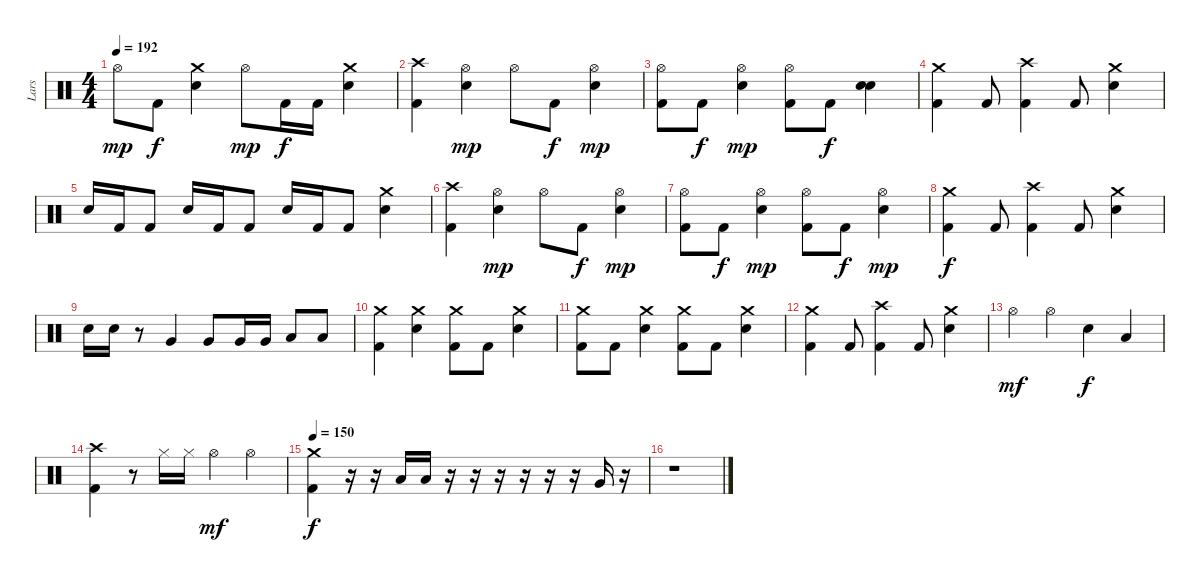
\track ("Lars" "Lars") {instrument percussion}
\staff {score}
\articulation defaults
\ts (4 4)
\tempo 192
\clef neutral
\ks c "Hi-Hat (open)".8{dy mp} "Kick (hit) 2".8{dy f}
("Crash medium (hit)" "Snare (hit) 2").4 "Hi-Hat (open)".8{dy mp} "Kick (hit) 2".16{dy f} "Kick (hit) 2".16 ("Crash medium (hit)" "Snare (hit) 2").4 |
("Crash high (hit)" "Kick (hit) 2").4 ("Hi-Hat (open)" "Snare (hit) 2").4{dy mp} "Hi-Hat (open)".8 "Kick (hit) 2".8{dy f} ("Hi-Hat (open)" "Snare (hit) 2").4{dy mp} |
("Hi-Hat (open)" "Kick (hit) 2").8 "Kick (hit) 2".8{dy f} ("Hi-Hat (open)" "Snare (hit) 2").4{dy mp} ("Hi-Hat (open)" "Kick (hit) 2").8 "Kick (hit) 2".8{dy f} ("Snare (hit) 2" "Snare (hit) 2").4 |
("Crash medium (hit)" "Kick (hit) 2").4 "Kick (hit) 2".8 ("Crash high (hit)" "Kick (hit) 2").4 "Kick (hit) 2".8 ("Crash medium (hit)" "Snare (hit) 2").4 |
"Snare (hit) 2".16 "Kick (hit) 2".16 "Kick (hit) 2".8 "Snare (hit) 2".16 "Kick (hit) 2".16 "Kick (hit) 2".8 "Snare (hit) 2".16 "Kick (hit) 2".16 "Kick (hit) 2".8 ("Crash medium (hit)" "Snare (hit) 2").4 |
("Crash high (hit)" "Kick (hit) 2").4 ("Hi-Hat (open)" "Snare (hit) 2").4{dy mp} "Hi-Hat (open)".8 "Kick (hit) 2".8{dy f} ("Hi-Hat (open)" "Snare (hit) 2").4{dy mp} |
("Hi-Hat (open)" "Kick (hit) 2").8 "Kick (hit) 2".8{dy f} ("Hi-Hat (open)" "Snare (hit) 2").4{dy mp} ("Hi-Hat (open)" "Kick (hit) 2").8 "Kick (hit) 2".8{dy f} ("Hi-Hat (open)" "Snare (hit) 2").4{dy mp} |
("Crash medium (hit)" "Kick (hit) 2").4{dy f} "Kick (hit) 2".8 ("Crash high (hit)" "Kick (hit) 2").4 "Kick (hit) 2".8 ("Crash medium (hit)" "Snare (hit) 2").4 |
"Snare (hit) 2".16 "Snare (hit) 2".16 r.8 "Very Low Tom (hit)".4 "Very Low Tom (hit)".8 "Very Low Tom (hit)".16 "Very Low Tom (hit)".16 "Low Floor Tom (hit)".8 "Low Floor Tom (hit)".8 |
("Crash medium (hit)" "Kick (hit) 2").4 ("Crash medium (hit)" "Snare (hit) 2").4 ("Crash medium (hit)" "Kick (hit) 2").8 "Kick (hit) 2".8 ("Crash medium (hit)" "Snare (hit) 2").4 |
("Crash medium (hit)" "Kick (hit) 2").8 "Kick (hit) 2".8 ("Crash medium (hit)" "Snare (hit) 2").4 ("Crash medium (hit)" "Kick (hit) 2").8 "Kick (hit) 2".8 ("Crash medium (hit)" "Snare (hit) 2").4 |
("Crash medium (hit)" "Kick (hit) 2").4 "Kick (hit) 2".8 ("Crash high (hit)" "Kick (hit) 2").4 "Kick (hit) 2".8 ("Crash medium (hit)" "Snare (hit) 2").4 |
"Hi-Hat (open)".4{dy mf} "Hi-Hat (open)".4 "Snare (hit) 2".4{dy f} "Low Tom (hit)".4 |
("Crash high (hit)" "Kick (hit) 2").4 r.8 "Hi-Hat (closed)".16 "Hi-Hat (closed)".16 "Hi-Hat (open)".4{dy mf} "Hi-Hat (open)".4 |
\tempo 150
("Crash medium (hit)" "Kick (hit) 2").4{dy f} r.16 r.16 "Low Tom (hit)".16 "Low Tom (hit)".16 r.16 r.16 r.16 r.16 r.16 r.16 "Very Low Tom (hit)".16 r.16 |
r.1
